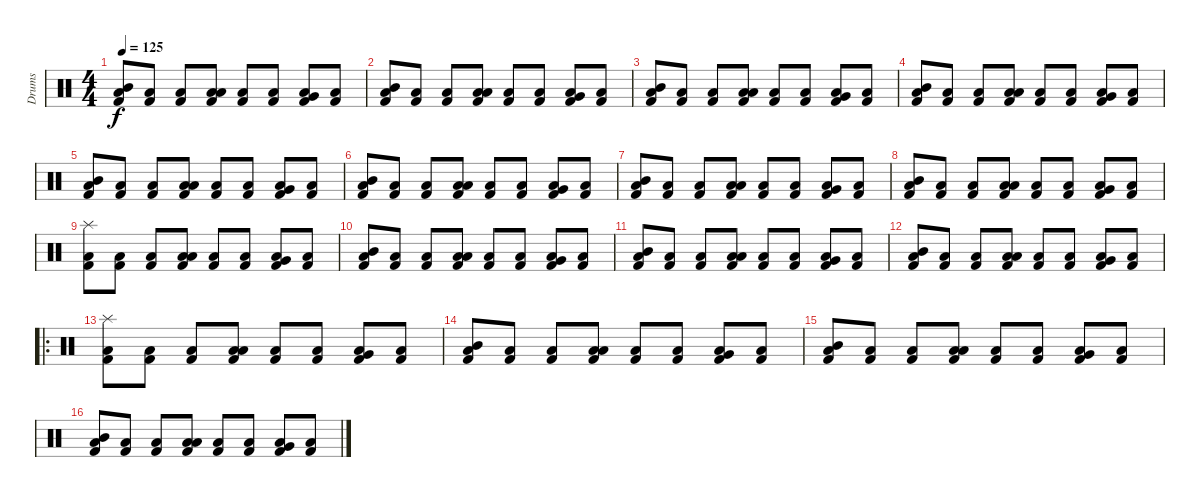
\track ("Drums" "Drums") {instrument percussion}
\staff {score}
\articulation defaults
\ts (4 4)
\tempo 125
\clef neutral
\ks c
("Mid Tom (hit)" "Low Floor Tom (hit)" "Kick (hit) 2").8{dy f volume 16} ("Low Floor Tom (hit)" "Kick (hit) 2").8 ("Low Floor Tom (hit)" "Kick (hit) 2").8 ("Low Tom (hit)" "Low Floor Tom (hit)" "Kick (hit) 2").8 ("Low Floor Tom (hit)" "Kick (hit) 2").8 ("Low Floor Tom (hit)" "Kick (hit) 2").8 ("Very Low Tom (hit)" "Low Floor Tom (hit)" "Kick (hit) 2").8 ("Low Floor Tom (hit)" "Kick (hit) 2").8 |
("Mid Tom (hit)" "Low Floor Tom (hit)" "Kick (hit) 2").8 ("Low Floor Tom (hit)" "Kick (hit) 2").8 ("Low Floor Tom (hit)" "Kick (hit) 2").8 ("Low Tom (hit)" "Low Floor Tom (hit)" "Kick (hit) 2").8 ("Low Floor Tom (hit)" "Kick (hit) 2").8 ("Low Floor Tom (hit)" "Kick (hit) 2").8 ("Very Low Tom (hit)" "Low Floor Tom (hit)" "Kick (hit) 2").8 ("Low Floor Tom (hit)" "Kick (hit) 2").8 |
("Mid Tom (hit)" "Low Floor Tom (hit)" "Kick (hit) 2").8 ("Low Floor Tom (hit)" "Kick (hit) 2").8 ("Low Floor Tom (hit)" "Kick (hit) 2").8 ("Low Tom (hit)" "Low Floor Tom (hit)" "Kick (hit) 2").8 ("Low Floor Tom (hit)" "Kick (hit) 2").8 ("Low Floor Tom (hit)" "Kick (hit) 2").8 ("Very Low Tom (hit)" "Low Floor Tom (hit)" "Kick (hit) 2").8 ("Low Floor Tom (hit)" "Kick (hit) 2").8 |
("Mid Tom (hit)" "Low Floor Tom (hit)" "Kick (hit) 2").8 ("Low Floor Tom (hit)" "Kick (hit) 2").8 ("Low Floor Tom (hit)" "Kick (hit) 2").8 ("Low Tom (hit)" "Low Floor Tom (hit)" "Kick (hit) 2").8 ("Low Floor Tom (hit)" "Kick (hit) 2").8 ("Low Floor Tom (hit)" "Kick (hit) 2").8 ("Very Low Tom (hit)" "Low Floor Tom (hit)" "Kick (hit) 2").8 ("Low Floor Tom (hit)" "Kick (hit) 2").8 |
("Mid Tom (hit)" "Low Floor Tom (hit)" "Kick (hit) 2").8 ("Low Floor Tom (hit)" "Kick (hit) 2").8 ("Low Floor Tom (hit)" "Kick (hit) 2").8 ("Low Tom (hit)" "Low Floor Tom (hit)" "Kick (hit) 2").8 ("Low Floor Tom (hit)" "Kick (hit) 2").8 ("Low Floor Tom (hit)" "Kick (hit) 2").8 ("Very Low Tom (hit)" "Low Floor Tom (hit)" "Kick (hit) 2").8 ("Low Floor Tom (hit)" "Kick (hit) 2").8 |
("Mid Tom (hit)" "Low Floor Tom (hit)" "Kick (hit) 2").8 ("Low Floor Tom (hit)" "Kick (hit) 2").8 ("Low Floor Tom (hit)" "Kick (hit) 2").8 ("Low Tom (hit)" "Low Floor Tom (hit)" "Kick (hit) 2").8 ("Low Floor Tom (hit)" "Kick (hit) 2").8 ("Low Floor Tom (hit)" "Kick (hit) 2").8 ("Very Low Tom (hit)" "Low Floor Tom (hit)" "Kick (hit) 2").8 ("Low Floor Tom (hit)" "Kick (hit) 2").8 |
("Mid Tom (hit)" "Low Floor Tom (hit)" "Kick (hit) 2").8 ("Low Floor Tom (hit)" "Kick (hit) 2").8 ("Low Floor Tom (hit)" "Kick (hit) 2").8 ("Low Tom (hit)" "Low Floor Tom (hit)" "Kick (hit) 2").8 ("Low Floor Tom (hit)" "Kick (hit) 2").8 ("Low Floor Tom (hit)" "Kick (hit) 2").8 ("Very Low Tom (hit)" "Low Floor Tom (hit)" "Kick (hit) 2").8 ("Low Floor Tom (hit)" "Kick (hit) 2").8 |
("Mid Tom (hit)" "Low Floor Tom (hit)" "Kick (hit) 2").8 ("Low Floor Tom (hit)" "Kick (hit) 2").8 ("Low Floor Tom (hit)" "Kick (hit) 2").8 ("Low Tom (hit)" "Low Floor Tom (hit)" "Kick (hit) 2").8 ("Low Floor Tom (hit)" "Kick (hit) 2").8 ("Low Floor Tom (hit)" "Kick (hit) 2").8 ("Very Low Tom (hit)" "Low Floor Tom (hit)" "Kick (hit) 2").8 ("Low Floor Tom (hit)" "Kick (hit) 2").8 |
("Splash (hit)" "Low Floor Tom (hit)" "Kick (hit) 2").8 ("Low Floor Tom (hit)" "Kick (hit) 2").8 ("Low Floor Tom (hit)" "Kick (hit) 2").8 ("Low Tom (hit)" "Low Floor Tom (hit)" "Kick (hit) 2").8 ("Low Floor Tom (hit)" "Kick (hit) 2").8 ("Low Floor Tom (hit)" "Kick (hit) 2").8 ("Very Low Tom (hit)" "Low Floor Tom (hit)" "Kick (hit) 2").8 ("Low Floor Tom (hit)" "Kick (hit) 2").8 |
("Mid Tom (hit)" "Low Floor Tom (hit)" "Kick (hit) 2").8 ("Low Floor Tom (hit)" "Kick (hit) 2").8 ("Low Floor Tom (hit)" "Kick (hit) 2").8 ("Low Tom (hit)" "Low Floor Tom (hit)" "Kick (hit) 2").8 ("Low Floor Tom (hit)" "Kick (hit) 2").8 ("Low Floor Tom (hit)" "Kick (hit) 2").8 ("Very Low Tom (hit)" "Low Floor Tom (hit)" "Kick (hit) 2").8 ("Low Floor Tom (hit)" "Kick (hit) 2").8 |
("Mid Tom (hit)" "Low Floor Tom (hit)" "Kick (hit) 2").8 ("Low Floor Tom (hit)" "Kick (hit) 2").8 ("Low Floor Tom (hit)" "Kick (hit) 2").8 ("Low Tom (hit)" "Low Floor Tom (hit)" "Kick (hit) 2").8 ("Low Floor Tom (hit)" "Kick (hit) 2").8 ("Low Floor Tom (hit)" "Kick (hit) 2").8 ("Very Low Tom (hit)" "Low Floor Tom (hit)" "Kick (hit) 2").8 ("Low Floor Tom (hit)" "Kick (hit) 2").8 |
("Mid Tom (hit)" "Low Floor Tom (hit)" "Kick (hit) 2").8 ("Low Floor Tom (hit)" "Kick (hit) 2").8 ("Low Floor Tom (hit)" "Kick (hit) 2").8 ("Low Tom (hit)" "Low Floor Tom (hit)" "Kick (hit) 2").8 ("Low Floor Tom (hit)" "Kick (hit) 2").8 ("Low Floor Tom (hit)" "Kick (hit) 2").8 ("Very Low Tom (hit)" "Low Floor Tom (hit)" "Kick (hit) 2").8 ("Low Floor Tom (hit)" "Kick (hit) 2").8 |
\ro
("Splash (hit)" "Low Floor Tom (hit)" "Kick (hit) 2").8 ("Low Floor Tom (hit)" "Kick (hit) 2").8 ("Low Floor Tom (hit)" "Kick (hit) 2").8 ("Low Tom (hit)" "Low Floor Tom (hit)" "Kick (hit) 2").8 ("Low Floor Tom (hit)" "Kick (hit) 2").8 ("Low Floor Tom (hit)" "Kick (hit) 2").8 ("Very Low Tom (hit)" "Low Floor Tom (hit)" "Kick (hit) 2").8 ("Low Floor Tom (hit)" "Kick (hit) 2").8 |
("Mid Tom (hit)" "Low Floor Tom (hit)" "Kick (hit) 2").8 ("Low Floor Tom (hit)" "Kick (hit) 2").8 ("Low Floor Tom (hit)" "Kick (hit) 2").8 ("Low Tom (hit)" "Low Floor Tom (hit)" "Kick (hit) 2").8 ("Low Floor Tom (hit)" "Kick (hit) 2").8 ("Low Floor Tom (hit)" "Kick (hit) 2").8 ("Very Low Tom (hit)" "Low Floor Tom (hit)" "Kick (hit) 2").8 ("Low Floor Tom (hit)" "Kick (hit) 2").8 |
("Mid Tom (hit)" "Low Floor Tom (hit)" "Kick (hit) 2").8 ("Low Floor Tom (hit)" "Kick (hit) 2").8 ("Low Floor Tom (hit)" "Kick (hit) 2").8 ("Low Tom (hit)" "Low Floor Tom (hit)" "Kick (hit) 2").8 ("Low Floor Tom (hit)" "Kick (hit) 2").8 ("Low Floor Tom (hit)" "Kick (hit) 2").8 ("Very Low Tom (hit)" "Low Floor Tom (hit)" "Kick (hit) 2").8 ("Low Floor Tom (hit)" "Kick (hit) 2").8 |
("Mid Tom (hit)" "Low Floor Tom (hit)" "Kick (hit) 2").8 ("Low Floor Tom (hit)" "Kick (hit) 2").8 ("Low Floor Tom (hit)" "Kick (hit) 2").8 ("Low Tom (hit)" "Low Floor Tom (hit)" "Kick (hit) 2").8 ("Low Floor Tom (hit)" "Kick (hit) 2").8 ("Low Floor Tom (hit)" "Kick (hit) 2").8 ("Very Low Tom (hit)" "Low Floor Tom (hit)" "Kick (hit) 2").8 ("Low Floor Tom (hit)" "Kick (hit) 2").8
